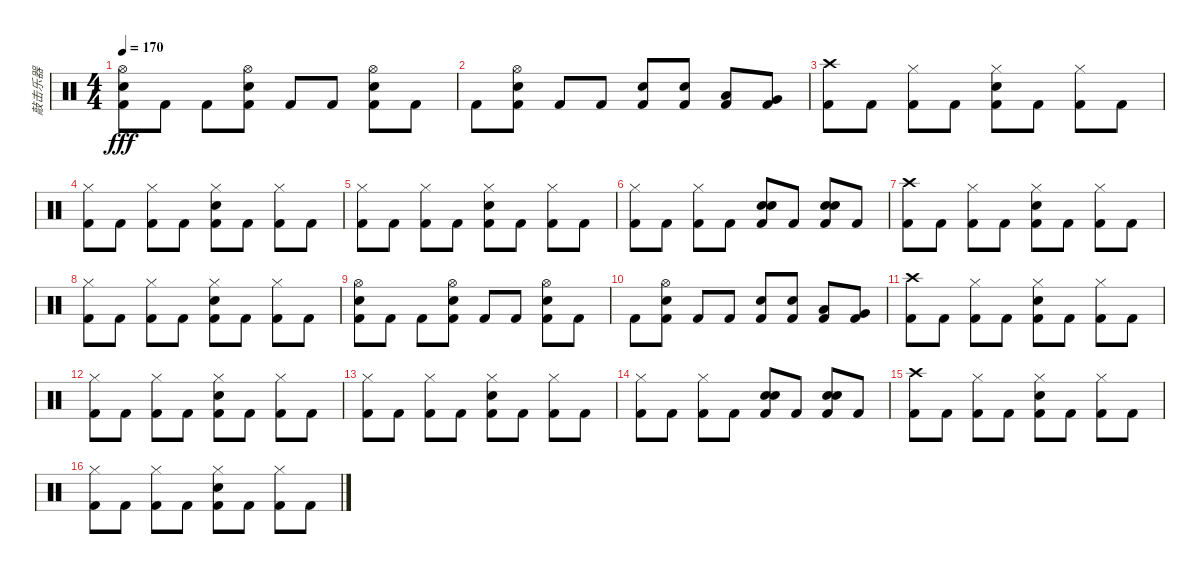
\track ("敲击乐器" "敲击乐器") {instrument percussion}
\staff {score}
\articulation defaults
\ts (4 4)
\tempo 170
\clef neutral
\ks c
("Hi-Hat (open)" "Electric Snare (hit)" "Kick (hit) 2").8{dy fff} "Kick (hit) 2".8 "Kick (hit) 2".8 ("Hi-Hat (open)" "Electric Snare (hit)" "Kick (hit) 2").8 "Kick (hit) 2".8 "Kick (hit) 2".8 ("Hi-Hat (open)" "Electric Snare (hit)" "Kick (hit) 2").8 "Kick (hit) 2".8 |
"Kick (hit) 2".8 ("Hi-Hat (open)" "Electric Snare (hit)" "Kick (hit) 2").8 "Kick (hit) 2".8 "Kick (hit) 2".8 ("Electric Snare (hit)" "Kick (hit) 2").8 ("Electric Snare (hit)" "Kick (hit) 2").8 ("Low Tom (hit)" "Kick (hit) 2").8 ("Very Low Tom (hit)" "Kick (hit) 2").8 |
("Crash high (hit)" "Kick (hit) 2").8 "Kick (hit) 2".8 ("Hi-Hat (closed)" "Kick (hit) 2").8 "Kick (hit) 2".8 ("Hi-Hat (closed)" "Electric Snare (hit)" "Kick (hit) 2").8 "Kick (hit) 2".8 ("Hi-Hat (closed)" "Kick (hit) 2").8 "Kick (hit) 2".8 |
("Hi-Hat (closed)" "Kick (hit) 2").8 "Kick (hit) 2".8 ("Hi-Hat (closed)" "Kick (hit) 2").8 "Kick (hit) 2".8 ("Hi-Hat (closed)" "Electric Snare (hit)" "Kick (hit) 2").8 "Kick (hit) 2".8 ("Hi-Hat (closed)" "Kick (hit) 2").8 "Kick (hit) 2".8 |
("Hi-Hat (closed)" "Kick (hit) 2").8 "Kick (hit) 2".8 ("Hi-Hat (closed)" "Kick (hit) 2").8 "Kick (hit) 2".8 ("Hi-Hat (closed)" "Electric Snare (hit)" "Kick (hit) 2").8 "Kick (hit) 2".8 ("Hi-Hat (closed)" "Kick (hit) 2").8 "Kick (hit) 2".8 |
("Hi-Hat (closed)" "Kick (hit) 2").8 "Kick (hit) 2".8 ("Hi-Hat (closed)" "Kick (hit) 2").8 "Kick (hit) 2".8 ("Electric Snare (hit)" "Electric Snare (hit)" "Kick (hit) 2").8 "Kick (hit) 2".8 ("Electric Snare (hit)" "Electric Snare (hit)" "Kick (hit) 2").8 "Kick (hit) 2".8 |
("Crash high (hit)" "Kick (hit) 2").8 "Kick (hit) 2".8 ("Hi-Hat (closed)" "Kick (hit) 2").8 "Kick (hit) 2".8 ("Hi-Hat (closed)" "Electric Snare (hit)" "Kick (hit) 2").8 "Kick (hit) 2".8 ("Hi-Hat (closed)" "Kick (hit) 2").8 "Kick (hit) 2".8 |
("Hi-Hat (closed)" "Kick (hit) 2").8 "Kick (hit) 2".8 ("Hi-Hat (closed)" "Kick (hit) 2").8 "Kick (hit) 2".8 ("Hi-Hat (closed)" "Electric Snare (hit)" "Kick (hit) 2").8 "Kick (hit) 2".8 ("Hi-Hat (closed)" "Kick (hit) 2").8 "Kick (hit) 2".8 |
("Hi-Hat (open)" "Electric Snare (hit)" "Kick (hit) 2").8 "Kick (hit) 2".8 "Kick (hit) 2".8 ("Hi-Hat (open)" "Electric Snare (hit)" "Kick (hit) 2").8 "Kick (hit) 2".8 "Kick (hit) 2".8 ("Hi-Hat (open)" "Electric Snare (hit)" "Kick (hit) 2").8 "Kick (hit) 2".8 |
"Kick (hit) 2".8 ("Hi-Hat (open)" "Electric Snare (hit)" "Kick (hit) 2").8 "Kick (hit) 2".8 "Kick (hit) 2".8 ("Electric Snare (hit)" "Kick (hit) 2").8 ("Electric Snare (hit)" "Kick (hit) 2").8 ("Low Tom (hit)" "Kick (hit) 2").8 ("Very Low Tom (hit)" "Kick (hit) 2").8 |
("Crash high (hit)" "Kick (hit) 2").8 "Kick (hit) 2".8 ("Hi-Hat (closed)" "Kick (hit) 2").8 "Kick (hit) 2".8 ("Hi-Hat (closed)" "Electric Snare (hit)" "Kick (hit) 2").8 "Kick (hit) 2".8 ("Hi-Hat (closed)" "Kick (hit) 2").8 "Kick (hit) 2".8 |
("Hi-Hat (closed)" "Kick (hit) 2").8 "Kick (hit) 2".8 ("Hi-Hat (closed)" "Kick (hit) 2").8 "Kick (hit) 2".8 ("Hi-Hat (closed)" "Electric Snare (hit)" "Kick (hit) 2").8 "Kick (hit) 2".8 ("Hi-Hat (closed)" "Kick (hit) 2").8 "Kick (hit) 2".8 |
("Hi-Hat (closed)" "Kick (hit) 2").8 "Kick (hit) 2".8 ("Hi-Hat (closed)" "Kick (hit) 2").8 "Kick (hit) 2".8 ("Hi-Hat (closed)" "Electric Snare (hit)" "Kick (hit) 2").8 "Kick (hit) 2".8 ("Hi-Hat (closed)" "Kick (hit) 2").8 "Kick (hit) 2".8 |
("Hi-Hat (closed)" "Kick (hit) 2").8 "Kick (hit) 2".8 ("Hi-Hat (closed)" "Kick (hit) 2").8 "Kick (hit) 2".8 ("Electric Snare (hit)" "Electric Snare (hit)" "Kick (hit) 2").8 "Kick (hit) 2".8 ("Electric Snare (hit)" "Electric Snare (hit)" "Kick (hit) 2").8 "Kick (hit) 2".8 |
("Crash high (hit)" "Kick (hit) 2").8 "Kick (hit) 2".8 ("Hi-Hat (closed)" "Kick (hit) 2").8 "Kick (hit) 2".8 ("Hi-Hat (closed)" "Electric Snare (hit)" "Kick (hit) 2").8 "Kick (hit) 2".8 ("Hi-Hat (closed)" "Kick (hit) 2").8 "Kick (hit) 2".8 |
("Hi-Hat (closed)" "Kick (hit) 2").8 "Kick (hit) 2".8 ("Hi-Hat (closed)" "Kick (hit) 2").8 "Kick (hit) 2".8 ("Hi-Hat (closed)" "Electric Snare (hit)" "Kick (hit) 2").8 "Kick (hit) 2".8 ("Hi-Hat (closed)" "Kick (hit) 2").8 "Kick (hit) 2".8
